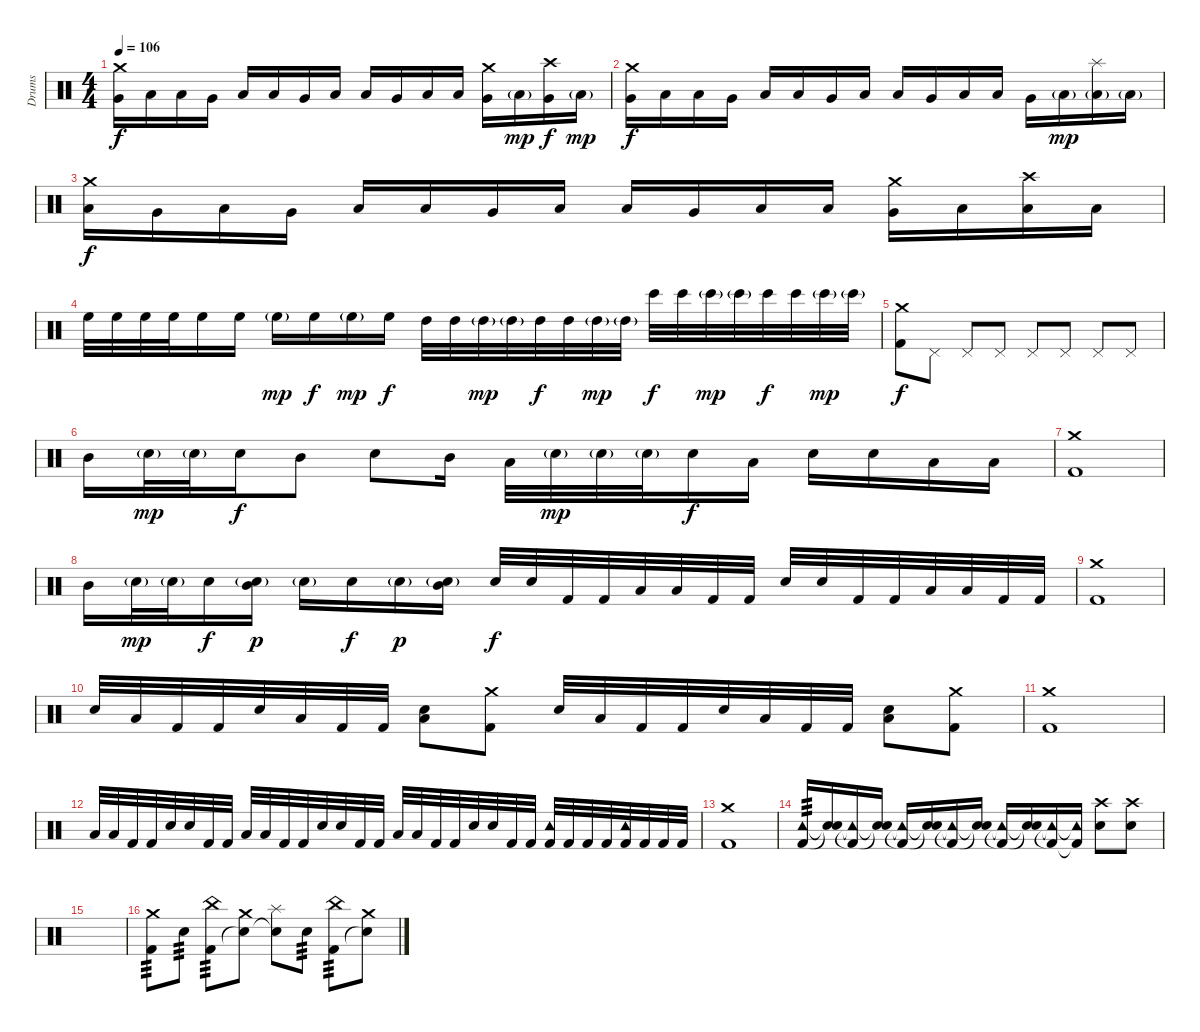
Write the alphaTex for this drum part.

\track ("Drums" "Drums") {instrument percussion}
\staff {score}
\articulation defaults
\ts (4 4)
\tempo 106
\clef neutral
\ks c
("Crash medium (hit)" "Very Low Tom (hit)").16{dy f} "Low Floor Tom (hit)".16 "Low Floor Tom (hit)".16 "Very Low Tom (hit)".16 "Low Floor Tom (hit)".16 "Low Floor Tom (hit)".16 "Very Low Tom (hit)".16 "Low Floor Tom (hit)".16 "Low Floor Tom (hit)".16 "Very Low Tom (hit)".16 "Low Floor Tom (hit)".16 "Low Floor Tom (hit)".16 ("Crash medium (hit)" "Very Low Tom (hit)").16 "Low Floor Tom (hit)"{g}.16{dy mp} ("Crash high (hit)" "Very Low Tom (hit)").16{dy f} "Low Floor Tom (hit)"{g}.16{dy mp} |
("Crash medium (hit)" "Very Low Tom (hit)").16{dy f} "Low Floor Tom (hit)".16 "Low Floor Tom (hit)".16 "Very Low Tom (hit)".16 "Low Floor Tom (hit)".16 "Low Floor Tom (hit)".16 "Very Low Tom (hit)".16 "Low Floor Tom (hit)".16 "Low Floor Tom (hit)".16 "Very Low Tom (hit)".16 "Low Floor Tom (hit)".16 "Low Floor Tom (hit)".16 "Very Low Tom (hit)".16 "Low Floor Tom (hit)"{g}.16{dy mp} ("Splash (hit)" "Low Floor Tom (hit)"{g}).16 "Low Floor Tom (hit)"{g}.16 |
("Crash medium (hit)" "Low Tom (hit)").16{dy f} "Very Low Tom (hit)".16 "Low Floor Tom (hit)".16 "Very Low Tom (hit)".16 "Low Floor Tom (hit)".16 "Low Floor Tom (hit)".16 "Very Low Tom (hit)".16 "Low Floor Tom (hit)".16 "Low Floor Tom (hit)".16 "Very Low Tom (hit)".16 "Low Floor Tom (hit)".16 "Low Floor Tom (hit)".16 ("Crash medium (hit)" "Very Low Tom (hit)").16 "Low Floor Tom (hit)".16 ("Crash high (hit)" "Low Floor Tom (hit)").16 "Low Floor Tom (hit)".16 |
"High Floor Tom (hit)".32 "High Floor Tom (hit)".32 "High Floor Tom (hit)".32 "High Floor Tom (hit)".32 "High Floor Tom (hit)".16 "High Floor Tom (hit)".16 "High Floor Tom (hit)"{g}.16{dy mp} "High Floor Tom (hit)".16{dy f} "High Floor Tom (hit)"{g}.16{dy mp} "High Floor Tom (hit)".16{dy f} "High Tom (hit)".32 "High Tom (hit)".32 "High Tom (hit)"{g}.32{dy mp} "High Tom (hit)"{g}.32 "High Tom (hit)".32{dy f} "High Tom (hit)".32 "High Tom (hit)"{g}.32{dy mp} "High Tom (hit)"{g}.32 "Bongo High (hit)".32{dy f} "Bongo High (hit)".32 "Bongo High (hit)"{g}.32{dy mp} "Bongo High (hit)"{g}.32 "Bongo High (hit)".32{dy f} "Bongo High (hit)".32 "Bongo High (hit)"{g}.32{dy mp} "Bongo High (hit)"{g}.32 |
("Crash medium (hit)" "Kick (hit) 2").8{dy f} "Pedal Hi-Hat (hit)".8 "Pedal Hi-Hat (hit)".8 "Pedal Hi-Hat (hit)".8 "Pedal Hi-Hat (hit)".8 "Pedal Hi-Hat (hit)".8 "Pedal Hi-Hat (hit)".8 "Pedal Hi-Hat (hit)".8 |
"Mid Tom (hit)".16 "Snare (hit) 2"{g}.32{dy mp} "Snare (hit) 2"{g}.32 "Snare (hit) 2".16{dy f} "Mid Tom (hit)".8 "Snare (hit) 2".8 "Mid Tom (hit)".16 "Low Tom (hit)".32 "Snare (hit) 2"{g}.32{dy mp} "Snare (hit) 2"{g}.32 "Snare (hit) 2"{g}.32 "Snare (hit) 2".16{dy f} "Low Tom (hit)".16 "Snare (hit) 2".16 "Snare (hit) 2".16 "Low Tom (hit)".16 "Low Tom (hit)".16 |
("Crash medium (hit)" "Kick (hit) 2").1 |
"Mid Tom (hit)".16 "Snare (hit) 2"{g}.32{dy mp} "Snare (hit) 2"{g}.32 "Snare (hit) 2".16{dy f} ("Mid Tom (hit)" "Snare (hit) 2"{g}).16{dy p} "Snare (hit) 2"{g}.16 "Snare (hit) 2".16{dy f} "Snare (hit) 2"{g}.16{dy p} ("Mid Tom (hit)" "Snare (hit) 2"{g}).16 "Snare (hit) 2".32{dy f} "Snare (hit) 2".32 "Kick (hit) 2".32 "Kick (hit) 2".32 "Low Tom (hit)".32 "Low Tom (hit)".32 "Kick (hit) 2".32 "Kick (hit) 2".32 "Snare (hit) 2".32 "Snare (hit) 2".32 "Kick (hit) 2".32 "Kick (hit) 2".32 "Low Tom (hit)".32 "Low Tom (hit)".32 "Kick (hit) 2".32 "Kick (hit) 2".32 |
("Crash medium (hit)" "Kick (hit) 2").1 |
"Snare (hit) 2".32 "Low Tom (hit)".32 "Kick (hit) 2".32 "Kick (hit) 2".32 "Snare (hit) 2".32 "Low Tom (hit)".32 "Kick (hit) 2".32 "Kick (hit) 2".32 ("Low Tom (hit)" "Snare (hit) 2").8 ("Crash medium (hit)" "Kick (hit) 2").8 "Snare (hit) 2".32 "Low Tom (hit)".32 "Kick (hit) 2".32 "Kick (hit) 2".32 "Snare (hit) 2".32 "Low Tom (hit)".32 "Kick (hit) 2".32 "Kick (hit) 2".32 ("Low Tom (hit)" "Snare (hit) 2").8 ("Crash medium (hit)" "Kick (hit) 2").8 |
("Crash medium (hit)" "Kick (hit) 2").1 |
"Low Tom (hit)".32 "Low Tom (hit)".32 "Kick (hit) 2".32 "Kick (hit) 2".32 "Snare (hit) 2".32 "Snare (hit) 2".32 "Kick (hit) 2".32 "Kick (hit) 2".32 "Low Tom (hit)".32 "Low Tom (hit)".32 "Kick (hit) 2".32 "Kick (hit) 2".32 "Snare (hit) 2".32 "Snare (hit) 2".32 "Kick (hit) 2".32 "Kick (hit) 2".32 "Low Tom (hit)".32 "Low Tom (hit)".32 "Kick (hit) 2".32 "Kick (hit) 2".32 "Snare (hit) 2".32 "Snare (hit) 2".32 "Kick (hit) 2".32 "Kick (hit) 2".32 ("Tambourine (hit)" "Kick (hit) 2").32 "Kick (hit) 2".32 "Kick (hit) 2".32 "Kick (hit) 2".32 ("Tambourine (hit)" "Kick (hit) 2").32 "Kick (hit) 2".32 "Kick (hit) 2".32 "Kick (hit) 2".32 |
("Crash medium (hit)" "Kick (hit) 2").1 |
("Tambourine (hit)" "Kick (hit) 2").16{tp 3} ("Snare (hit)"{t} "Snare (hit)"{t}).16 ("Tambourine (hit)"{t} "Kick (hit) 2"{t}).16 ("Snare (hit)"{t} "Snare (hit)"{t}).16 ("Tambourine (hit)"{t} "Kick (hit) 2"{t}).16 ("Snare (hit)"{t} "Snare (hit)"{t}).16 ("Tambourine (hit)"{t} "Kick (hit) 2"{t}).16 ("Snare (hit)"{t} "Snare (hit)"{t}).16 ("Tambourine (hit)"{t} "Kick (hit) 2"{t}).16 ("Snare (hit)"{t} "Snare (hit)"{t}).16 ("Tambourine (hit)"{t} "Kick (hit) 2"{t}).16 ("Tambourine (hit)"{t} "Kick (hit) 2"{t}).16 ("Crash high (hit)" "Snare (hit) 2").8 ("Crash high (hit)" "Snare (hit) 2").8 |
|
("Crash medium (hit)" "Kick (hit) 2").8{tp 3} "Snare (hit) 2".8{tp 3} ("China (hit)" "Kick (hit) 2").8{tp 3} ("Crash medium (hit)" "Snare (hit)"{t}).8 ("Splash (hit)" "Snare (hit)"{t}).8 "Snare (hit) 2".8{tp 3} ("China (hit)" "Kick (hit) 2").8{tp 3} ("Crash medium (hit)" "Snare (hit)"{t}).8
